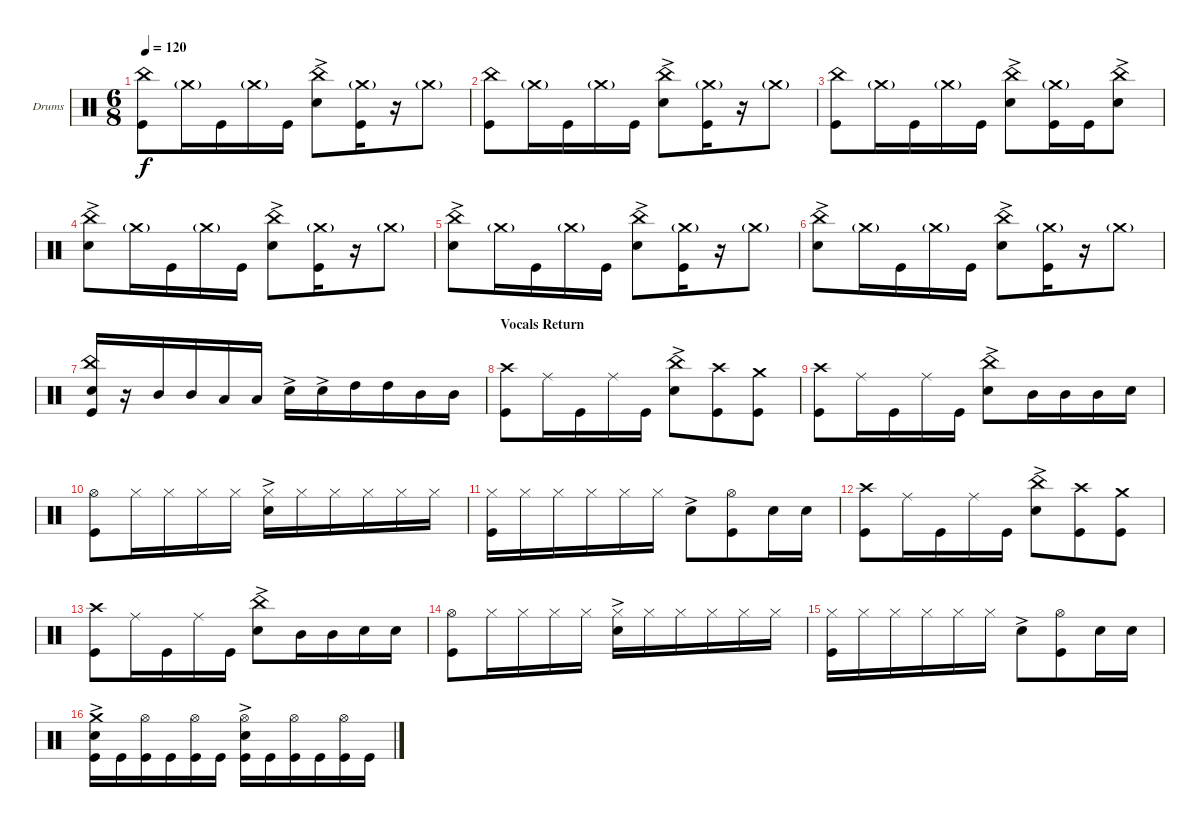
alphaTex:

\bracketExtendMode groupsimilarinstruments
\firstSystemTrackNameOrientation horizontal
\otherSystemsTrackNameOrientation horizontal
\track ("Drumkit" "Drums") {instrument percussion}
\staff {score}
\articulation defaults
\ts (6 8)
\tempo 120
\clef neutral
\ks c
("Kick (hit)" "China (hit)").8{dy f} "Crash medium (hit)"{g}.16 "Kick (hit)".16 "Crash medium (hit)"{g}.16 "Kick (hit)".16 ("Snare (hit) 2"{ac} "China (hit)").8 ("Kick (hit)" "Crash medium (hit)"{g}).16 r.16 "Crash medium (hit)"{g}.8 |
("Kick (hit)" "China (hit)").8 "Crash medium (hit)"{g}.16 "Kick (hit)".16 "Crash medium (hit)"{g}.16 "Kick (hit)".16 ("Snare (hit) 2"{ac} "China (hit)").8 ("Kick (hit)" "Crash medium (hit)"{g}).16 r.16 "Crash medium (hit)"{g}.8 |
("Kick (hit)" "China (hit)").8 "Crash medium (hit)"{g}.16 "Kick (hit)".16 "Crash medium (hit)"{g}.16 "Kick (hit)".16 ("Snare (hit) 2"{ac} "China (hit)").8 ("Kick (hit)" "Crash medium (hit)"{g}).16 "Kick (hit)".16 ("Snare (hit) 2"{ac} "China (hit)").8 |
("Snare (hit) 2"{ac} "China (hit)").8 "Crash medium (hit)"{g}.16 "Kick (hit)".16 "Crash medium (hit)"{g}.16 "Kick (hit)".16 ("Snare (hit) 2"{ac} "China (hit)").8 ("Kick (hit)" "Crash medium (hit)"{g}).16 r.16 "Crash medium (hit)"{g}.8 |
("Snare (hit) 2"{ac} "China (hit)").8 "Crash medium (hit)"{g}.16 "Kick (hit)".16 "Crash medium (hit)"{g}.16 "Kick (hit)".16 ("Snare (hit) 2"{ac} "China (hit)").8 ("Kick (hit)" "Crash medium (hit)"{g}).16 r.16 "Crash medium (hit)"{g}.8 |
("Snare (hit) 2"{ac} "China (hit)").8 "Crash medium (hit)"{g}.16 "Kick (hit)".16 "Crash medium (hit)"{g}.16 "Kick (hit)".16 ("Snare (hit) 2"{ac} "China (hit)").8 ("Kick (hit)" "Crash medium (hit)"{g}).16 r.16 "Crash medium (hit)"{g}.8 |
("Kick (hit)" "Snare (hit) 2" "China (hit)").16 r.16 "Mid Tom (hit)".16 "Mid Tom (hit)".16 "Low Tom (hit)".16 "Low Tom (hit)".16 "Snare (hit) 2"{ac}.16 "Snare (hit) 2"{ac}.16 "High Tom (hit)".16 "High Tom (hit)".16 "Mid Tom (hit)".16 "Mid Tom (hit)".16 |
\section ("" "Vocals Return")
("Kick (hit)" "Crash high (hit)").8 "Ride (middle)".16 "Kick (hit)".16 "Ride (middle)".16 "Kick (hit)".16 ("Snare (hit) 2"{ac} "China (hit)").8 ("Kick (hit)" "Crash high (hit)").8 ("Kick (hit)" "Crash medium (hit)").8 |
("Kick (hit)" "Crash high (hit)").8 "Ride (middle)".16 "Kick (hit)".16 "Ride (middle)".16 "Kick (hit)".16 ("Snare (hit) 2"{ac} "China (hit)").8 "Mid Tom (hit)".16 "Mid Tom (hit)".16 "Mid Tom (hit)".16 "Snare (hit) 2".16 |
("Hi-Hat (open)" "Kick (hit)").8 "Hi-Hat (closed)".16 "Hi-Hat (closed)".16 "Hi-Hat (closed)".16 "Hi-Hat (closed)".16 ("Hi-Hat (closed)" "Snare (hit) 2"{ac}).16 "Hi-Hat (closed)".16 "Hi-Hat (closed)".16 "Hi-Hat (closed)".16 "Hi-Hat (closed)".16 "Hi-Hat (closed)".16 |
("Hi-Hat (closed)" "Kick (hit)").16 "Hi-Hat (closed)".16 "Hi-Hat (closed)".16 "Hi-Hat (closed)".16 "Hi-Hat (closed)".16 "Hi-Hat (closed)".16 "Snare (hit) 2"{ac}.8 ("Kick (hit)" "Hi-Hat (open)").8 "Snare (hit) 2".16 "Snare (hit) 2".16 |
("Kick (hit)" "Crash high (hit)").8 "Ride (middle)".16 "Kick (hit)".16 "Ride (middle)".16 "Kick (hit)".16 ("Snare (hit) 2"{ac} "China (hit)").8 ("Kick (hit)" "Crash high (hit)").8 ("Kick (hit)" "Crash medium (hit)").8 |
("Kick (hit)" "Crash high (hit)").8 "Ride (middle)".16 "Kick (hit)".16 "Ride (middle)".16 "Kick (hit)".16 ("Snare (hit) 2"{ac} "China (hit)").8 "Mid Tom (hit)".16 "Mid Tom (hit)".16 "Snare (hit) 2".16 "Snare (hit) 2".16 |
("Hi-Hat (open)" "Kick (hit)").8 "Hi-Hat (closed)".16 "Hi-Hat (closed)".16 "Hi-Hat (closed)".16 "Hi-Hat (closed)".16 ("Hi-Hat (closed)" "Snare (hit) 2"{ac}).16 "Hi-Hat (closed)".16 "Hi-Hat (closed)".16 "Hi-Hat (closed)".16 "Hi-Hat (closed)".16 "Hi-Hat (closed)".16 |
("Hi-Hat (closed)" "Kick (hit)").16 "Hi-Hat (closed)".16 "Hi-Hat (closed)".16 "Hi-Hat (closed)".16 "Hi-Hat (closed)".16 "Hi-Hat (closed)".16 "Snare (hit) 2"{ac}.8 ("Kick (hit)" "Hi-Hat (open)").8 "Snare (hit) 2".16 "Snare (hit) 2".16 |
("Kick (hit)" "Crash medium (hit)" "Snare (hit) 2"{ac}).16 "Kick (hit)".16 ("Kick (hit)" "Hi-Hat (open)").16 "Kick (hit)".16 ("Kick (hit)" "Hi-Hat (open)").16 "Kick (hit)".16 ("Kick (hit)" "Hi-Hat (open)" "Snare (hit) 2"{ac}).16 "Kick (hit)".16 ("Kick (hit)" "Hi-Hat (open)").16 "Kick (hit)".16 ("Kick (hit)" "Hi-Hat (open)").16 "Kick (hit)".16
